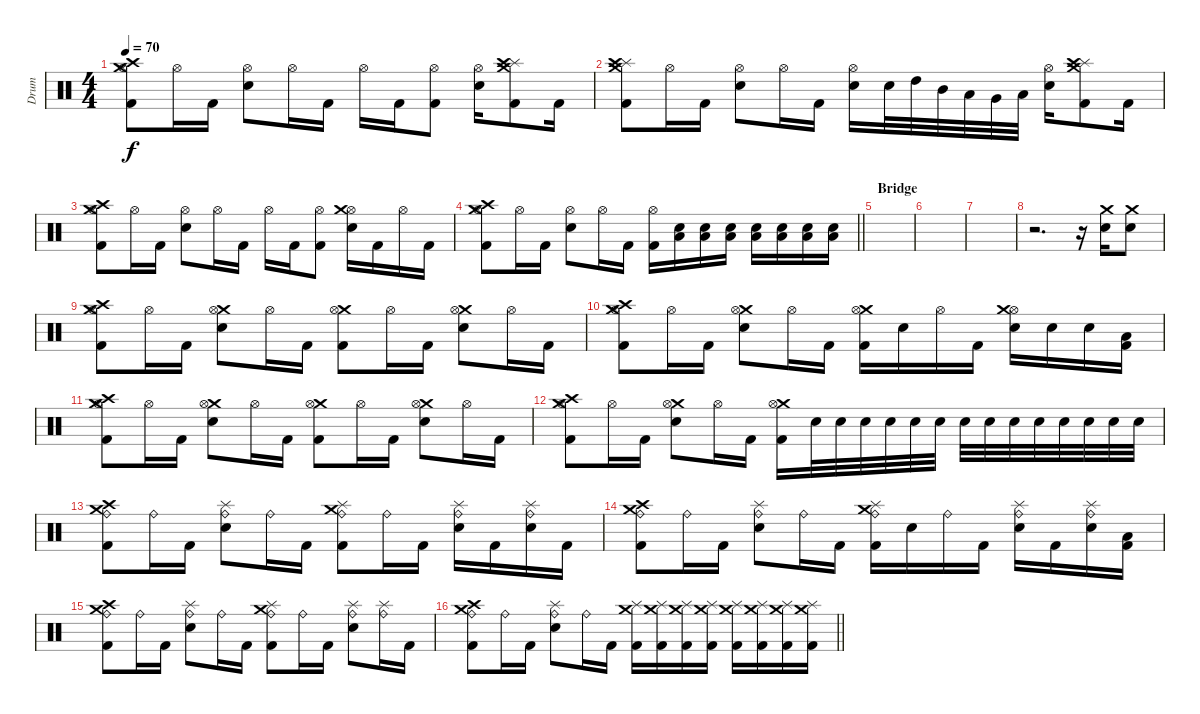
\track ("Drum" "Drum") {instrument percussion}
\staff {score}
\articulation defaults
\ts (4 4)
\tempo 70
\clef neutral
\ks c
("Hi-Hat (open)" "Crash high (hit)" "Crash medium (hit)" "Kick (hit) 2").8{dy f} "Hi-Hat (open)".16 "Kick (hit) 2".16 ("Hi-Hat (open)" "Electric Snare (hit)").8 "Hi-Hat (open)".16 "Kick (hit) 2".16 "Hi-Hat (open)".16 "Kick (hit) 2".16 ("Hi-Hat (open)" "Kick (hit) 2").8 ("Hi-Hat (open)" "Electric Snare (hit)").16 ("Splash (hit)" "Crash high (hit)" "Crash medium (hit)" "Kick (hit) 2").8 "Kick (hit) 2".16 |
("Splash (hit)" "Crash high (hit)" "Crash medium (hit)" "Kick (hit) 2").8 "Hi-Hat (open)".16 "Kick (hit) 2".16 ("Hi-Hat (open)" "Electric Snare (hit)").8 "Hi-Hat (open)".16 "Kick (hit) 2".16 ("Hi-Hat (open)" "Electric Snare (hit)").16 "Electric Snare (hit)".32 "High Tom (hit)".32 "Mid Tom (hit)".32 "Low Tom (hit)".32 "Very Low Tom (hit)".32 "Low Floor Tom (hit)".32 ("Hi-Hat (open)" "Electric Snare (hit)").16 ("Splash (hit)" "Crash high (hit)" "Crash medium (hit)" "Kick (hit) 2").8 "Kick (hit) 2".16 |
("Hi-Hat (open)" "Crash high (hit)" "Crash medium (hit)" "Kick (hit) 2").8 "Hi-Hat (open)".16 "Kick (hit) 2".16 ("Hi-Hat (open)" "Electric Snare (hit)").8 "Hi-Hat (open)".16 "Kick (hit) 2".16 "Hi-Hat (open)".16 "Kick (hit) 2".16 ("Hi-Hat (open)" "Kick (hit) 2").8 ("Hi-Hat (open)" "Crash medium (hit)" "Electric Snare (hit)").16 "Kick (hit) 2".16 "Hi-Hat (open)".16 "Kick (hit) 2".16 |
\barLineRight lightlight
("Hi-Hat (open)" "Crash high (hit)" "Crash medium (hit)" "Kick (hit) 2").8 "Hi-Hat (open)".16 "Kick (hit) 2".16 ("Hi-Hat (open)" "Electric Snare (hit)").8 "Hi-Hat (open)".16 "Kick (hit) 2".16 ("Hi-Hat (open)" "Kick (hit) 2").16 ("Electric Snare (hit)" "Low Tom (hit)").16 ("Electric Snare (hit)" "Low Tom (hit)").16 ("Electric Snare (hit)" "Low Tom (hit)").16 ("Electric Snare (hit)" "Low Tom (hit)").16 ("Electric Snare (hit)" "Low Tom (hit)").16 ("Electric Snare (hit)" "Low Tom (hit)").16 ("Electric Snare (hit)" "Low Tom (hit)").16 |
\section ("" "Bridge")
|
|
|
r.2{d} r.16 ("Crash medium (hit)" "Electric Snare (hit)").16 ("Crash medium (hit)" "Electric Snare (hit)").8 |
("Crash medium (hit)" "Hi-Hat (open)" "Crash high (hit)" "Kick (hit) 2").8 "Hi-Hat (open)".16 "Kick (hit) 2".16 ("Crash medium (hit)" "Hi-Hat (open)" "Electric Snare (hit)").8 "Hi-Hat (open)".16 "Kick (hit) 2".16 ("Crash medium (hit)" "Hi-Hat (open)" "Kick (hit) 2").8 "Hi-Hat (open)".16 "Kick (hit) 2".16 ("Crash medium (hit)" "Hi-Hat (open)" "Electric Snare (hit)").8 "Hi-Hat (open)".16 "Kick (hit) 2".16 |
("Crash medium (hit)" "Hi-Hat (open)" "Crash high (hit)" "Kick (hit) 2").8 "Hi-Hat (open)".16 "Kick (hit) 2".16 ("Crash medium (hit)" "Hi-Hat (open)" "Electric Snare (hit)").8 "Hi-Hat (open)".16 "Kick (hit) 2".16 ("Crash medium (hit)" "Hi-Hat (open)" "Kick (hit) 2").16 "Electric Snare (hit)".16 "Hi-Hat (open)".16 "Kick (hit) 2".16 ("Hi-Hat (open)" "Crash medium (hit)" "Electric Snare (hit)").16 "Electric Snare (hit)".16 "Electric Snare (hit)".16 ("Low Tom (hit)" "Kick (hit) 2").16 |
("Crash medium (hit)" "Hi-Hat (open)" "Crash high (hit)" "Kick (hit) 2").8 "Hi-Hat (open)".16 "Kick (hit) 2".16 ("Crash medium (hit)" "Hi-Hat (open)" "Electric Snare (hit)").8 "Hi-Hat (open)".16 "Kick (hit) 2".16 ("Crash medium (hit)" "Hi-Hat (open)" "Kick (hit) 2").8 "Hi-Hat (open)".16 "Kick (hit) 2".16 ("Crash medium (hit)" "Hi-Hat (open)" "Electric Snare (hit)").8 "Hi-Hat (open)".16 "Kick (hit) 2".16 |
("Crash medium (hit)" "Hi-Hat (open)" "Crash high (hit)" "Kick (hit) 2").8 "Hi-Hat (open)".16 "Kick (hit) 2".16 ("Crash medium (hit)" "Hi-Hat (open)" "Electric Snare (hit)").8 "Hi-Hat (open)".16 "Kick (hit) 2".16 ("Crash medium (hit)" "Hi-Hat (open)" "Kick (hit) 2").16 "Electric Snare (hit)".32 "Electric Snare (hit)".32 "Electric Snare (hit)".32 "Electric Snare (hit)".32 "Electric Snare (hit)".32 "Electric Snare (hit)".32 "Electric Snare (hit)".32 "Electric Snare (hit)".32 "Electric Snare (hit)".32 "Electric Snare (hit)".32 "Electric Snare (hit)".32 "Electric Snare (hit)".32 "Electric Snare (hit)".32 "Electric Snare (hit)".32 |
("Crash medium (hit)" "Ride (bell)" "Crash high (hit)" "Kick (hit) 2").8 "Ride (bell)".16 "Kick (hit) 2".16 ("Splash (hit)" "Ride (bell)" "Electric Snare (hit)").8 "Ride (bell)".16 "Kick (hit) 2".16 ("Crash medium (hit)" "Ride (bell)" "Splash (hit)" "Kick (hit) 2").8 "Ride (bell)".16 "Kick (hit) 2".16 ("Splash (hit)" "Ride (bell)" "Electric Snare (hit)").16 "Kick (hit) 2".16 ("Splash (hit)" "Ride (bell)" "Electric Snare (hit)").16 "Kick (hit) 2".16 |
("Crash medium (hit)" "Ride (bell)" "Crash high (hit)" "Kick (hit) 2").8 "Ride (bell)".16 "Kick (hit) 2".16 ("Splash (hit)" "Ride (bell)" "Electric Snare (hit)").8 "Ride (bell)".16 "Kick (hit) 2".16 ("Crash medium (hit)" "Ride (bell)" "Splash (hit)" "Kick (hit) 2").16 "Electric Snare (hit)".16 "Ride (bell)".16 "Kick (hit) 2".16 ("Ride (bell)" "Splash (hit)" "Electric Snare (hit)").16 "Kick (hit) 2".16 ("Ride (bell)" "Splash (hit)" "Electric Snare (hit)").16 ("Low Tom (hit)" "Kick (hit) 2").16 |
("Crash medium (hit)" "Ride (bell)" "Crash high (hit)" "Kick (hit) 2").8 "Ride (bell)".16 "Kick (hit) 2".16 ("Splash (hit)" "Ride (bell)" "Electric Snare (hit)").8 "Ride (bell)".16 "Kick (hit) 2".16 ("Crash medium (hit)" "Ride (bell)" "Splash (hit)" "Kick (hit) 2").8 "Ride (bell)".16 "Kick (hit) 2".16 ("Splash (hit)" "Ride (bell)" "Electric Snare (hit)").8 ("Splash (hit)" "Ride (bell)").16 "Kick (hit) 2".16 |
\barLineRight lightlight
("Crash medium (hit)" "Ride (bell)" "Crash high (hit)" "Kick (hit) 2").8 "Ride (bell)".16 "Kick (hit) 2".16 ("Splash (hit)" "Ride (bell)" "Electric Snare (hit)").8 "Ride (bell)".16 "Kick (hit) 2".16 ("Crash medium (hit)" "Splash (hit)" "Kick (hit) 2").16 ("Crash medium (hit)" "Splash (hit)" "Kick (hit) 2").16 ("Crash medium (hit)" "Splash (hit)" "Kick (hit) 2").16 ("Crash medium (hit)" "Splash (hit)" "Kick (hit) 2").16 ("Crash medium (hit)" "Splash (hit)" "Kick (hit) 2").16 ("Crash medium (hit)" "Splash (hit)" "Kick (hit) 2").16 ("Crash medium (hit)" "Splash (hit)" "Kick (hit) 2").16 ("Crash medium (hit)" "Splash (hit)" "Kick (hit) 2").16
